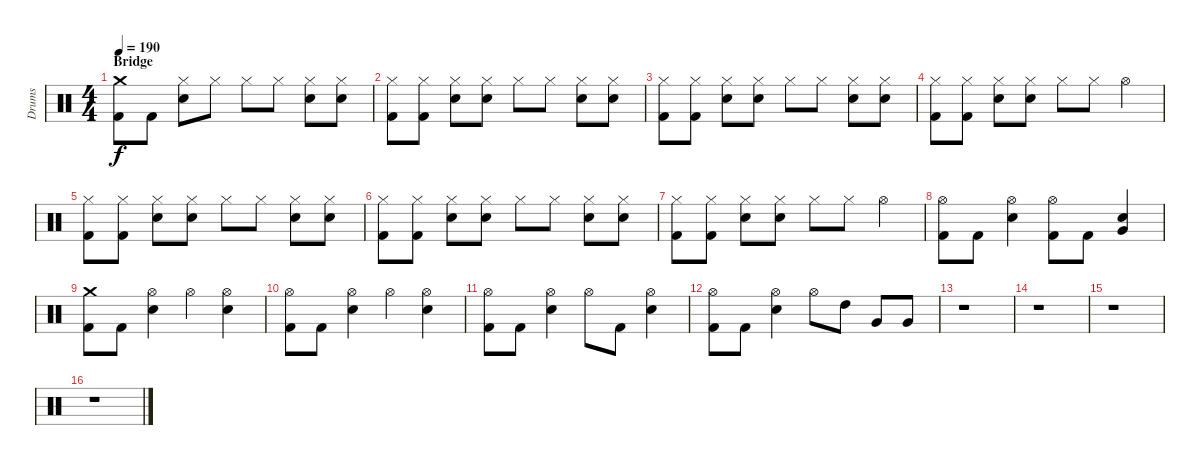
\track ("Drums" "Drums") {instrument percussion}
\staff {score}
\articulation defaults
\ts (4 4)
\section ("" "Bridge")
\tempo 190
\clef neutral
\ks c
("Crash medium (hit)" "Kick (hit) 2").8{dy f} "Kick (hit) 2".8 ("Hi-Hat (closed)" "Snare (hit) 2").8 "Hi-Hat (closed)".8 "Hi-Hat (closed)".8 "Hi-Hat (closed)".8 ("Hi-Hat (closed)" "Snare (hit) 2").8 ("Hi-Hat (closed)" "Snare (hit) 2").8 |
("Hi-Hat (closed)" "Kick (hit) 2").8 ("Hi-Hat (closed)" "Kick (hit) 2").8 ("Hi-Hat (closed)" "Snare (hit) 2").8 ("Hi-Hat (closed)" "Snare (hit) 2").8 "Hi-Hat (closed)".8 "Hi-Hat (closed)".8 ("Hi-Hat (closed)" "Snare (hit) 2").8 ("Hi-Hat (closed)" "Snare (hit) 2").8 |
("Hi-Hat (closed)" "Kick (hit) 2").8 ("Hi-Hat (closed)" "Kick (hit) 2").8 ("Hi-Hat (closed)" "Snare (hit) 2").8 ("Hi-Hat (closed)" "Snare (hit) 2").8 "Hi-Hat (closed)".8 "Hi-Hat (closed)".8 ("Hi-Hat (closed)" "Snare (hit) 2").8 ("Hi-Hat (closed)" "Snare (hit) 2").8 |
("Hi-Hat (closed)" "Kick (hit) 2").8 ("Hi-Hat (closed)" "Kick (hit) 2").8 ("Hi-Hat (closed)" "Snare (hit) 2").8 ("Hi-Hat (closed)" "Snare (hit) 2").8 "Hi-Hat (closed)".8 "Hi-Hat (closed)".8 "Hi-Hat (open)".4 |
("Hi-Hat (closed)" "Kick (hit) 2").8 ("Hi-Hat (closed)" "Kick (hit) 2").8 ("Hi-Hat (closed)" "Snare (hit) 2").8 ("Hi-Hat (closed)" "Snare (hit) 2").8 "Hi-Hat (closed)".8 "Hi-Hat (closed)".8 ("Hi-Hat (closed)" "Snare (hit) 2").8 ("Hi-Hat (closed)" "Snare (hit) 2").8 |
("Hi-Hat (closed)" "Kick (hit) 2").8 ("Hi-Hat (closed)" "Kick (hit) 2").8 ("Hi-Hat (closed)" "Snare (hit) 2").8 ("Hi-Hat (closed)" "Snare (hit) 2").8 "Hi-Hat (closed)".8 "Hi-Hat (closed)".8 ("Hi-Hat (closed)" "Snare (hit) 2").8 ("Hi-Hat (closed)" "Snare (hit) 2").8 |
("Hi-Hat (closed)" "Kick (hit) 2").8 ("Hi-Hat (closed)" "Kick (hit) 2").8 ("Hi-Hat (closed)" "Snare (hit) 2").8 ("Hi-Hat (closed)" "Snare (hit) 2").8 "Hi-Hat (closed)".8 "Hi-Hat (closed)".8 "Hi-Hat (open)".4 |
("Hi-Hat (open)" "Kick (hit) 2").8 "Kick (hit) 2".8 ("Hi-Hat (open)" "Snare (hit) 2").4 ("Hi-Hat (open)" "Kick (hit) 2").8 "Kick (hit) 2".8 ("Snare (hit) 2" "Very Low Tom (hit)").4 |
("Crash medium (hit)" "Kick (hit) 2").8 "Kick (hit) 2".8 ("Hi-Hat (open)" "Snare (hit) 2").4 "Hi-Hat (open)".4 ("Hi-Hat (open)" "Snare (hit) 2").4 |
("Hi-Hat (open)" "Kick (hit) 2").8 "Kick (hit) 2".8 ("Hi-Hat (open)" "Snare (hit) 2").4 "Hi-Hat (open)".4 ("Hi-Hat (open)" "Snare (hit) 2").4 |
("Hi-Hat (open)" "Kick (hit) 2").8 "Kick (hit) 2".8 ("Hi-Hat (open)" "Snare (hit) 2").4 "Hi-Hat (open)".8 "Kick (hit) 2".8 ("Hi-Hat (open)" "Snare (hit) 2").4 |
("Hi-Hat (open)" "Kick (hit) 2").8 "Kick (hit) 2".8 ("Hi-Hat (open)" "Snare (hit) 2").4 "Hi-Hat (open)".8 "High Tom (hit)".8 "Very Low Tom (hit)".8 "Very Low Tom (hit)".8 |
r.1 |
r.1 |
r.1 |
r.1
